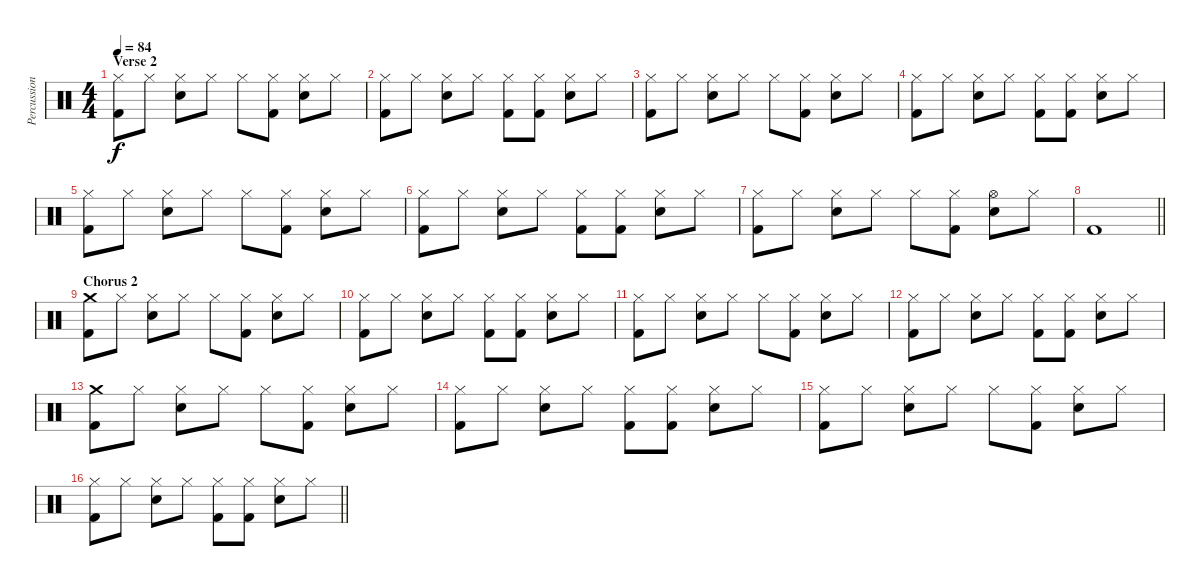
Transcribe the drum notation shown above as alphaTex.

\track ("Percussion" "Percussion") {instrument percussion}
\staff {score}
\articulation defaults
\ts (4 4)
\section ("" "Verse 2")
\tempo 84
\clef neutral
\ks c
("Hi-Hat (closed)" "Kick (hit) 2").8{dy f} "Hi-Hat (closed)".8 ("Hi-Hat (closed)" "Electric Snare (hit)").8 "Hi-Hat (closed)".8 "Hi-Hat (closed)".8 ("Hi-Hat (closed)" "Kick (hit) 2").8 ("Hi-Hat (closed)" "Electric Snare (hit)").8 "Hi-Hat (closed)".8 |
("Hi-Hat (closed)" "Kick (hit) 2").8 "Hi-Hat (closed)".8 ("Hi-Hat (closed)" "Electric Snare (hit)").8 "Hi-Hat (closed)".8 ("Hi-Hat (closed)" "Kick (hit) 2").8 ("Hi-Hat (closed)" "Kick (hit) 2").8 ("Hi-Hat (closed)" "Electric Snare (hit)").8 "Hi-Hat (closed)".8 |
("Hi-Hat (closed)" "Kick (hit) 2").8 "Hi-Hat (closed)".8 ("Hi-Hat (closed)" "Electric Snare (hit)").8 "Hi-Hat (closed)".8 "Hi-Hat (closed)".8 ("Hi-Hat (closed)" "Kick (hit) 2").8 ("Hi-Hat (closed)" "Electric Snare (hit)").8 "Hi-Hat (closed)".8 |
("Hi-Hat (closed)" "Kick (hit) 2").8 "Hi-Hat (closed)".8 ("Hi-Hat (closed)" "Electric Snare (hit)").8 "Hi-Hat (closed)".8 ("Hi-Hat (closed)" "Kick (hit) 2").8 ("Hi-Hat (closed)" "Kick (hit) 2").8 ("Hi-Hat (closed)" "Electric Snare (hit)").8 "Hi-Hat (closed)".8 |
("Hi-Hat (closed)" "Kick (hit) 2").8 "Hi-Hat (closed)".8 ("Hi-Hat (closed)" "Electric Snare (hit)").8 "Hi-Hat (closed)".8 "Hi-Hat (closed)".8 ("Hi-Hat (closed)" "Kick (hit) 2").8 ("Hi-Hat (closed)" "Electric Snare (hit)").8 "Hi-Hat (closed)".8 |
("Hi-Hat (closed)" "Kick (hit) 2").8 "Hi-Hat (closed)".8 ("Hi-Hat (closed)" "Electric Snare (hit)").8 "Hi-Hat (closed)".8 ("Hi-Hat (closed)" "Kick (hit) 2").8 ("Hi-Hat (closed)" "Kick (hit) 2").8 ("Hi-Hat (closed)" "Electric Snare (hit)").8 "Hi-Hat (closed)".8 |
("Hi-Hat (closed)" "Kick (hit) 2").8 "Hi-Hat (closed)".8 ("Hi-Hat (closed)" "Electric Snare (hit)").8 "Hi-Hat (closed)".8 "Hi-Hat (closed)".8 ("Hi-Hat (closed)" "Kick (hit) 2").8 ("Hi-Hat (open)" "Electric Snare (hit)").8 "Hi-Hat (closed)".8 |
\barLineRight lightlight "Kick (hit) 2".1
|
\section ("" "Chorus 2")
("Crash medium (hit)" "Kick (hit) 2").8 "Hi-Hat (closed)".8 ("Hi-Hat (closed)" "Electric Snare (hit)").8 "Hi-Hat (closed)".8 "Hi-Hat (closed)".8 ("Hi-Hat (closed)" "Kick (hit) 2").8 ("Hi-Hat (closed)" "Electric Snare (hit)").8 "Hi-Hat (closed)".8 |
("Hi-Hat (closed)" "Kick (hit) 2").8 "Hi-Hat (closed)".8 ("Hi-Hat (closed)" "Electric Snare (hit)").8 "Hi-Hat (closed)".8 ("Hi-Hat (closed)" "Kick (hit) 2").8 ("Hi-Hat (closed)" "Kick (hit) 2").8 ("Hi-Hat (closed)" "Electric Snare (hit)").8 "Hi-Hat (closed)".8 |
("Hi-Hat (closed)" "Kick (hit) 2").8 "Hi-Hat (closed)".8 ("Hi-Hat (closed)" "Electric Snare (hit)").8 "Hi-Hat (closed)".8 "Hi-Hat (closed)".8 ("Hi-Hat (closed)" "Kick (hit) 2").8 ("Hi-Hat (closed)" "Electric Snare (hit)").8 "Hi-Hat (closed)".8 |
("Hi-Hat (closed)" "Kick (hit) 2").8 "Hi-Hat (closed)".8 ("Hi-Hat (closed)" "Electric Snare (hit)").8 "Hi-Hat (closed)".8 ("Hi-Hat (closed)" "Kick (hit) 2").8 ("Hi-Hat (closed)" "Kick (hit) 2").8 ("Hi-Hat (closed)" "Electric Snare (hit)").8 "Hi-Hat (closed)".8 |
("Crash medium (hit)" "Kick (hit) 2").8 "Hi-Hat (closed)".8 ("Hi-Hat (closed)" "Electric Snare (hit)").8 "Hi-Hat (closed)".8 "Hi-Hat (closed)".8 ("Hi-Hat (closed)" "Kick (hit) 2").8 ("Hi-Hat (closed)" "Electric Snare (hit)").8 "Hi-Hat (closed)".8 |
("Hi-Hat (closed)" "Kick (hit) 2").8 "Hi-Hat (closed)".8 ("Hi-Hat (closed)" "Electric Snare (hit)").8 "Hi-Hat (closed)".8 ("Hi-Hat (closed)" "Kick (hit) 2").8 ("Hi-Hat (closed)" "Kick (hit) 2").8 ("Hi-Hat (closed)" "Electric Snare (hit)").8 "Hi-Hat (closed)".8 |
("Hi-Hat (closed)" "Kick (hit) 2").8 "Hi-Hat (closed)".8 ("Hi-Hat (closed)" "Electric Snare (hit)").8 "Hi-Hat (closed)".8 "Hi-Hat (closed)".8 ("Hi-Hat (closed)" "Kick (hit) 2").8 ("Hi-Hat (closed)" "Electric Snare (hit)").8 "Hi-Hat (closed)".8 |
\barLineRight lightlight
("Hi-Hat (closed)" "Kick (hit) 2").8 "Hi-Hat (closed)".8 ("Hi-Hat (closed)" "Electric Snare (hit)").8 "Hi-Hat (closed)".8 ("Hi-Hat (closed)" "Kick (hit) 2").8 ("Hi-Hat (closed)" "Kick (hit) 2").8 ("Hi-Hat (closed)" "Electric Snare (hit)").8 "Hi-Hat (closed)".8
